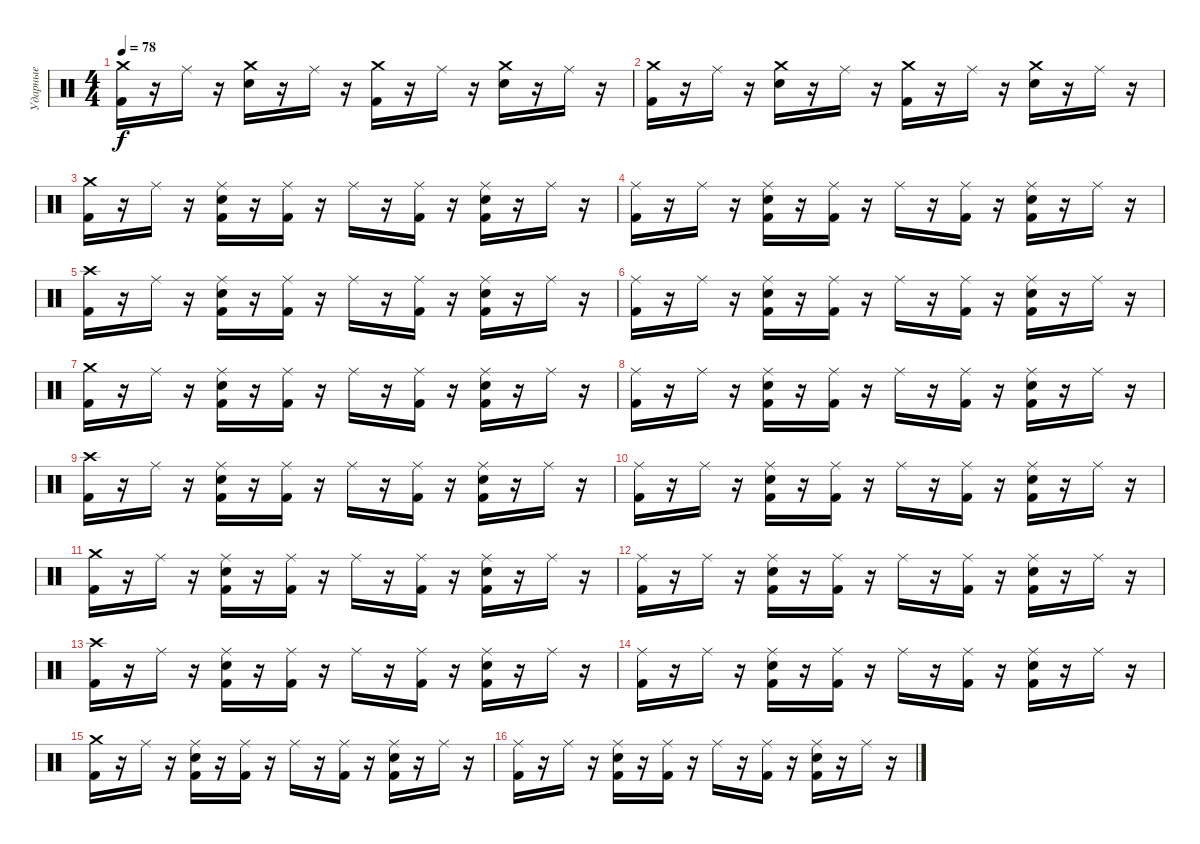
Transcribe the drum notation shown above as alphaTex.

\track ("Ударные" "Ударные") {instrument percussion}
\staff {score}
\articulation defaults
\ts (4 4)
\tempo 78
\clef neutral
\ks c
("Crash medium (hit)" "Kick (hit) 2").16{dy f} r.16 "Ride (middle)".16 r.16 ("Crash medium (hit)" "Electric Snare (hit)").16 r.16 "Ride (middle)".16 r.16 ("Crash medium (hit)" "Kick (hit) 2").16 r.16 "Ride (middle)".16 r.16 ("Crash medium (hit)" "Electric Snare (hit)").16 r.16 "Ride (middle)".16 r.16 |
("Crash medium (hit)" "Kick (hit) 2").16 r.16 "Ride (middle)".16 r.16 ("Crash medium (hit)" "Electric Snare (hit)").16 r.16 "Ride (middle)".16 r.16 ("Crash medium (hit)" "Kick (hit) 2").16 r.16 "Ride (middle)".16 r.16 ("Crash medium (hit)" "Electric Snare (hit)").16 r.16 "Ride (middle)".16 r.16 |
("Crash medium (hit)" "Kick (hit) 2").16 r.16 "Ride (middle)".16 r.16 ("Ride (middle)" "Electric Snare (hit)" "Kick (hit) 2").16 r.16 ("Ride (middle)" "Kick (hit) 2").16 r.16 "Ride (middle)".16 r.16 ("Ride (middle)" "Kick (hit) 2").16 r.16 ("Ride (middle)" "Electric Snare (hit)" "Kick (hit) 2").16 r.16 "Ride (middle)".16 r.16 |
("Ride (middle)" "Kick (hit) 2").16 r.16 "Ride (middle)".16 r.16 ("Ride (middle)" "Electric Snare (hit)" "Kick (hit) 2").16 r.16 ("Ride (middle)" "Kick (hit) 2").16 r.16 "Ride (middle)".16 r.16 ("Ride (middle)" "Kick (hit) 2").16 r.16 ("Ride (middle)" "Electric Snare (hit)" "Kick (hit) 2").16 r.16 "Ride (middle)".16 r.16 |
("Crash high (hit)" "Kick (hit) 2").16 r.16 "Ride (middle)".16 r.16 ("Ride (middle)" "Electric Snare (hit)" "Kick (hit) 2").16 r.16 ("Ride (middle)" "Kick (hit) 2").16 r.16 "Ride (middle)".16 r.16 ("Ride (middle)" "Kick (hit) 2").16 r.16 ("Ride (middle)" "Electric Snare (hit)" "Kick (hit) 2").16 r.16 "Ride (middle)".16 r.16 |
("Ride (middle)" "Kick (hit) 2").16 r.16 "Ride (middle)".16 r.16 ("Ride (middle)" "Electric Snare (hit)" "Kick (hit) 2").16 r.16 ("Ride (middle)" "Kick (hit) 2").16 r.16 "Ride (middle)".16 r.16 ("Ride (middle)" "Kick (hit) 2").16 r.16 ("Ride (middle)" "Electric Snare (hit)" "Kick (hit) 2").16 r.16 "Ride (middle)".16 r.16 |
("Crash medium (hit)" "Kick (hit) 2").16 r.16 "Ride (middle)".16 r.16 ("Ride (middle)" "Electric Snare (hit)" "Kick (hit) 2").16 r.16 ("Ride (middle)" "Kick (hit) 2").16 r.16 "Ride (middle)".16 r.16 ("Ride (middle)" "Kick (hit) 2").16 r.16 ("Ride (middle)" "Electric Snare (hit)" "Kick (hit) 2").16 r.16 "Ride (middle)".16 r.16 |
("Ride (middle)" "Kick (hit) 2").16 r.16 "Ride (middle)".16 r.16 ("Ride (middle)" "Electric Snare (hit)" "Kick (hit) 2").16 r.16 ("Ride (middle)" "Kick (hit) 2").16 r.16 "Ride (middle)".16 r.16 ("Ride (middle)" "Kick (hit) 2").16 r.16 ("Ride (middle)" "Electric Snare (hit)" "Kick (hit) 2").16 r.16 "Ride (middle)".16 r.16 |
("Crash high (hit)" "Kick (hit) 2").16 r.16 "Ride (middle)".16 r.16 ("Ride (middle)" "Electric Snare (hit)" "Kick (hit) 2").16 r.16 ("Ride (middle)" "Kick (hit) 2").16 r.16 "Ride (middle)".16 r.16 ("Ride (middle)" "Kick (hit) 2").16 r.16 ("Ride (middle)" "Electric Snare (hit)" "Kick (hit) 2").16 r.16 "Ride (middle)".16 r.16 |
("Ride (middle)" "Kick (hit) 2").16 r.16 "Ride (middle)".16 r.16 ("Ride (middle)" "Electric Snare (hit)" "Kick (hit) 2").16 r.16 ("Ride (middle)" "Kick (hit) 2").16 r.16 "Ride (middle)".16 r.16 ("Ride (middle)" "Kick (hit) 2").16 r.16 ("Ride (middle)" "Electric Snare (hit)" "Kick (hit) 2").16 r.16 "Ride (middle)".16 r.16 |
("Crash medium (hit)" "Kick (hit) 2").16 r.16 "Ride (middle)".16 r.16 ("Ride (middle)" "Electric Snare (hit)" "Kick (hit) 2").16 r.16 ("Ride (middle)" "Kick (hit) 2").16 r.16 "Ride (middle)".16 r.16 ("Ride (middle)" "Kick (hit) 2").16 r.16 ("Ride (middle)" "Electric Snare (hit)" "Kick (hit) 2").16 r.16 "Ride (middle)".16 r.16 |
("Ride (middle)" "Kick (hit) 2").16 r.16 "Ride (middle)".16 r.16 ("Ride (middle)" "Electric Snare (hit)" "Kick (hit) 2").16 r.16 ("Ride (middle)" "Kick (hit) 2").16 r.16 "Ride (middle)".16 r.16 ("Ride (middle)" "Kick (hit) 2").16 r.16 ("Ride (middle)" "Electric Snare (hit)" "Kick (hit) 2").16 r.16 "Ride (middle)".16 r.16 |
("Crash high (hit)" "Kick (hit) 2").16 r.16 "Ride (middle)".16 r.16 ("Ride (middle)" "Electric Snare (hit)" "Kick (hit) 2").16 r.16 ("Ride (middle)" "Kick (hit) 2").16 r.16 "Ride (middle)".16 r.16 ("Ride (middle)" "Kick (hit) 2").16 r.16 ("Ride (middle)" "Electric Snare (hit)" "Kick (hit) 2").16 r.16 "Ride (middle)".16 r.16 |
("Ride (middle)" "Kick (hit) 2").16 r.16 "Ride (middle)".16 r.16 ("Ride (middle)" "Electric Snare (hit)" "Kick (hit) 2").16 r.16 ("Ride (middle)" "Kick (hit) 2").16 r.16 "Ride (middle)".16 r.16 ("Ride (middle)" "Kick (hit) 2").16 r.16 ("Ride (middle)" "Electric Snare (hit)" "Kick (hit) 2").16 r.16 "Ride (middle)".16 r.16 |
("Crash medium (hit)" "Kick (hit) 2").16 r.16 "Ride (middle)".16 r.16 ("Ride (middle)" "Electric Snare (hit)" "Kick (hit) 2").16 r.16 ("Ride (middle)" "Kick (hit) 2").16 r.16 "Ride (middle)".16 r.16 ("Ride (middle)" "Kick (hit) 2").16 r.16 ("Ride (middle)" "Electric Snare (hit)" "Kick (hit) 2").16 r.16 "Ride (middle)".16 r.16 |
("Ride (middle)" "Kick (hit) 2").16 r.16 "Ride (middle)".16 r.16 ("Ride (middle)" "Electric Snare (hit)" "Kick (hit) 2").16 r.16 ("Ride (middle)" "Kick (hit) 2").16 r.16 "Ride (middle)".16 r.16 ("Ride (middle)" "Kick (hit) 2").16 r.16 ("Ride (middle)" "Electric Snare (hit)" "Kick (hit) 2").16 r.16 "Ride (middle)".16 r.16
